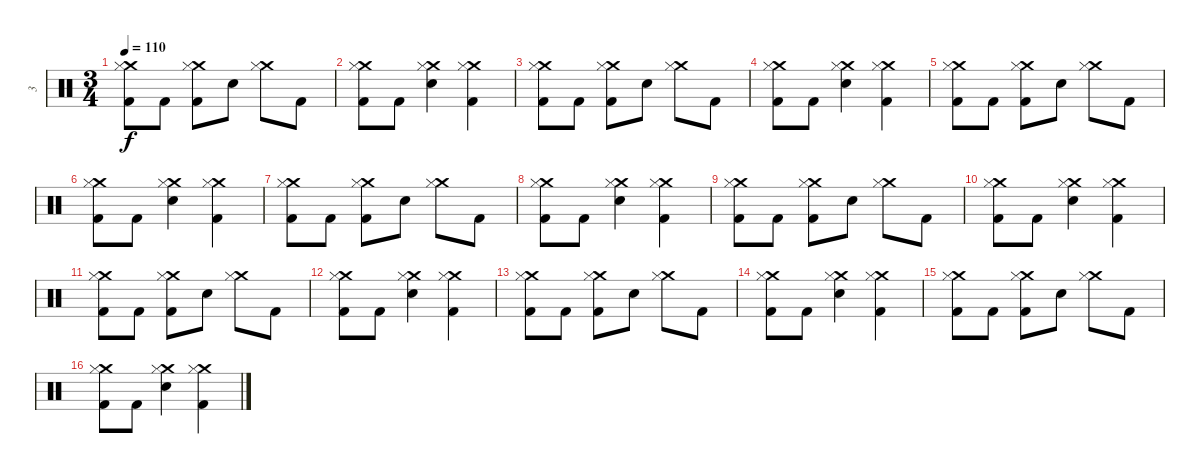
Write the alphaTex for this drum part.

\track ("3" "3") {instrument percussion}
\staff {score}
\articulation defaults
\ts (3 4)
\tempo 110
\clef neutral
\ks c
("Crash medium (hit)" "Hi-Hat (closed)" "Kick (hit) 2").8{dy f} "Kick (hit) 2".8 ("Crash medium (hit)" "Hi-Hat (closed)" "Kick (hit) 2").8 "Snare (hit) 2".8 ("Crash medium (hit)" "Hi-Hat (closed)").8 "Kick (hit) 2".8 |
("Crash medium (hit)" "Hi-Hat (closed)" "Kick (hit) 2").8 "Kick (hit) 2".8 ("Crash medium (hit)" "Hi-Hat (closed)" "Snare (hit) 2").4 ("Crash medium (hit)" "Hi-Hat (closed)" "Kick (hit) 2").4 |
("Crash medium (hit)" "Hi-Hat (closed)" "Kick (hit) 2").8 "Kick (hit) 2".8 ("Crash medium (hit)" "Hi-Hat (closed)" "Kick (hit) 2").8 "Snare (hit) 2".8 ("Crash medium (hit)" "Hi-Hat (closed)").8 "Kick (hit) 2".8 |
("Crash medium (hit)" "Hi-Hat (closed)" "Kick (hit) 2").8 "Kick (hit) 2".8 ("Crash medium (hit)" "Hi-Hat (closed)" "Snare (hit) 2").4 ("Crash medium (hit)" "Hi-Hat (closed)" "Kick (hit) 2").4 |
("Crash medium (hit)" "Hi-Hat (closed)" "Kick (hit) 2").8 "Kick (hit) 2".8 ("Crash medium (hit)" "Hi-Hat (closed)" "Kick (hit) 2").8 "Snare (hit) 2".8 ("Crash medium (hit)" "Hi-Hat (closed)").8 "Kick (hit) 2".8 |
("Crash medium (hit)" "Hi-Hat (closed)" "Kick (hit) 2").8 "Kick (hit) 2".8 ("Crash medium (hit)" "Hi-Hat (closed)" "Snare (hit) 2").4 ("Crash medium (hit)" "Hi-Hat (closed)" "Kick (hit) 2").4 |
("Crash medium (hit)" "Hi-Hat (closed)" "Kick (hit) 2").8 "Kick (hit) 2".8 ("Crash medium (hit)" "Hi-Hat (closed)" "Kick (hit) 2").8 "Snare (hit) 2".8 ("Crash medium (hit)" "Hi-Hat (closed)").8 "Kick (hit) 2".8 |
("Crash medium (hit)" "Hi-Hat (closed)" "Kick (hit) 2").8 "Kick (hit) 2".8 ("Crash medium (hit)" "Hi-Hat (closed)" "Snare (hit) 2").4 ("Crash medium (hit)" "Hi-Hat (closed)" "Kick (hit) 2").4 |
("Crash medium (hit)" "Hi-Hat (closed)" "Kick (hit) 2").8 "Kick (hit) 2".8 ("Crash medium (hit)" "Hi-Hat (closed)" "Kick (hit) 2").8 "Snare (hit) 2".8 ("Crash medium (hit)" "Hi-Hat (closed)").8 "Kick (hit) 2".8 |
("Crash medium (hit)" "Hi-Hat (closed)" "Kick (hit) 2").8 "Kick (hit) 2".8 ("Crash medium (hit)" "Hi-Hat (closed)" "Snare (hit) 2").4 ("Crash medium (hit)" "Hi-Hat (closed)" "Kick (hit) 2").4 |
("Crash medium (hit)" "Hi-Hat (closed)" "Kick (hit) 2").8 "Kick (hit) 2".8 ("Crash medium (hit)" "Hi-Hat (closed)" "Kick (hit) 2").8 "Snare (hit) 2".8 ("Crash medium (hit)" "Hi-Hat (closed)").8 "Kick (hit) 2".8 |
("Crash medium (hit)" "Hi-Hat (closed)" "Kick (hit) 2").8 "Kick (hit) 2".8 ("Crash medium (hit)" "Hi-Hat (closed)" "Snare (hit) 2").4 ("Crash medium (hit)" "Hi-Hat (closed)" "Kick (hit) 2").4 |
("Crash medium (hit)" "Hi-Hat (closed)" "Kick (hit) 2").8 "Kick (hit) 2".8 ("Crash medium (hit)" "Hi-Hat (closed)" "Kick (hit) 2").8 "Snare (hit) 2".8 ("Crash medium (hit)" "Hi-Hat (closed)").8 "Kick (hit) 2".8 |
("Crash medium (hit)" "Hi-Hat (closed)" "Kick (hit) 2").8 "Kick (hit) 2".8 ("Crash medium (hit)" "Hi-Hat (closed)" "Snare (hit) 2").4 ("Crash medium (hit)" "Hi-Hat (closed)" "Kick (hit) 2").4 |
("Crash medium (hit)" "Hi-Hat (closed)" "Kick (hit) 2").8 "Kick (hit) 2".8 ("Crash medium (hit)" "Hi-Hat (closed)" "Kick (hit) 2").8 "Snare (hit) 2".8 ("Crash medium (hit)" "Hi-Hat (closed)").8 "Kick (hit) 2".8 |
("Crash medium (hit)" "Hi-Hat (closed)" "Kick (hit) 2").8 "Kick (hit) 2".8 ("Crash medium (hit)" "Hi-Hat (closed)" "Snare (hit) 2").4 ("Crash medium (hit)" "Hi-Hat (closed)" "Kick (hit) 2").4
